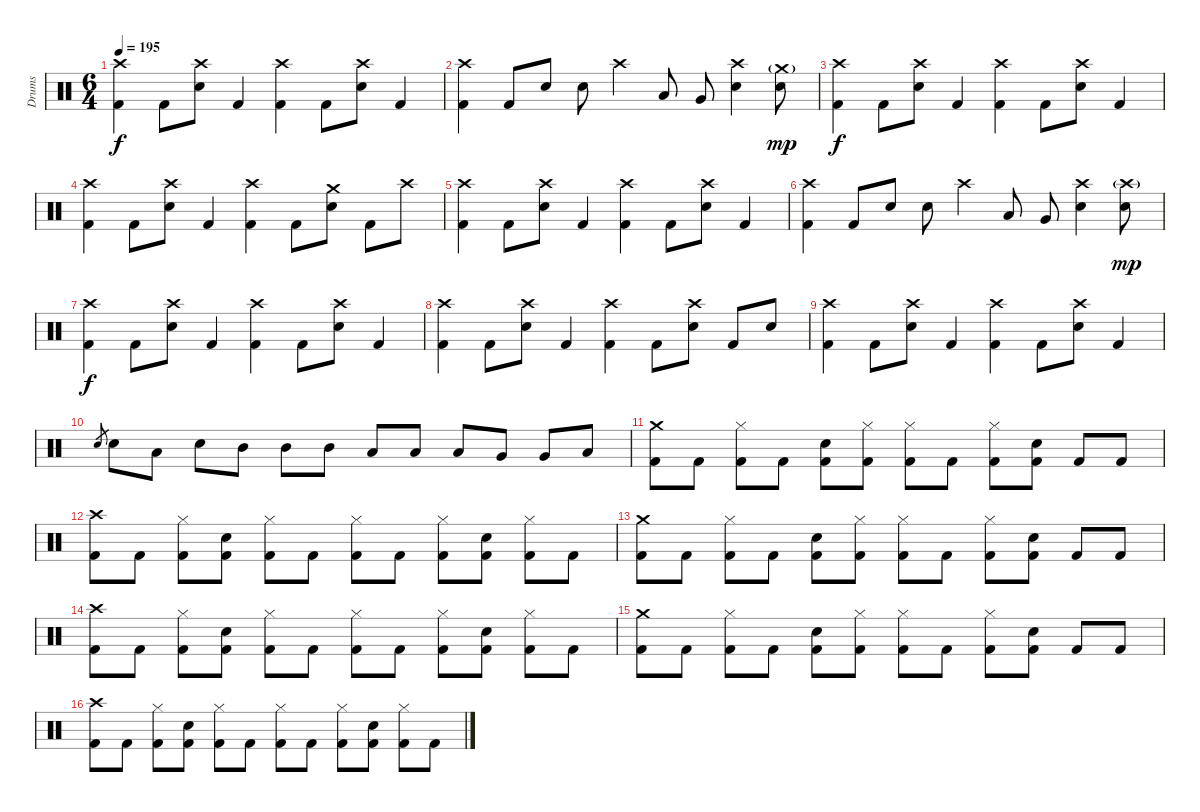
\track ("Drums" "Drums") {instrument percussion}
\staff {score}
\articulation defaults
\ts (6 4)
\tempo 195
\clef neutral
\ks c
("Crash high (hit)" "Kick (hit) 2").4{dy f} "Kick (hit) 2".8 ("Crash high (hit)" "Electric Snare (hit)").8 "Kick (hit) 2".4 ("Crash high (hit)" "Kick (hit) 2").4 "Kick (hit) 2".8 ("Crash high (hit)" "Electric Snare (hit)").8 "Kick (hit) 2".4 |
("Crash high (hit)" "Kick (hit) 2").4 "Kick (hit) 2".8 "Electric Snare (hit)".8 "Electric Snare (hit)".8 "Crash high (hit)".4 "Low Tom (hit)".8 "Very Low Tom (hit)".8 ("Crash high (hit)" "Electric Snare (hit)").4 ("Crash medium (hit)"{g} "Electric Snare (hit)").8{dy mp} |
("Crash high (hit)" "Kick (hit) 2").4{dy f} "Kick (hit) 2".8 ("Crash high (hit)" "Electric Snare (hit)").8 "Kick (hit) 2".4 ("Crash high (hit)" "Kick (hit) 2").4 "Kick (hit) 2".8 ("Crash high (hit)" "Electric Snare (hit)").8 "Kick (hit) 2".4 |
("Crash high (hit)" "Kick (hit) 2").4 "Kick (hit) 2".8 ("Crash high (hit)" "Electric Snare (hit)").8 "Kick (hit) 2".4 ("Crash high (hit)" "Kick (hit) 2").4 "Kick (hit) 2".8 ("Crash medium (hit)" "Electric Snare (hit)").8 "Kick (hit) 2".8 "Crash high (hit)".8 |
("Crash high (hit)" "Kick (hit) 2").4 "Kick (hit) 2".8 ("Crash high (hit)" "Electric Snare (hit)").8 "Kick (hit) 2".4 ("Crash high (hit)" "Kick (hit) 2").4 "Kick (hit) 2".8 ("Crash high (hit)" "Electric Snare (hit)").8 "Kick (hit) 2".4 |
("Crash high (hit)" "Kick (hit) 2").4 "Kick (hit) 2".8 "Electric Snare (hit)".8 "Electric Snare (hit)".8 "Crash high (hit)".4 "Low Tom (hit)".8 "Very Low Tom (hit)".8 ("Crash high (hit)" "Electric Snare (hit)").4 ("Crash high (hit)"{g} "Electric Snare (hit)").8{dy mp} |
("Crash high (hit)" "Kick (hit) 2").4{dy f} "Kick (hit) 2".8 ("Crash high (hit)" "Electric Snare (hit)").8 "Kick (hit) 2".4 ("Crash high (hit)" "Kick (hit) 2").4 "Kick (hit) 2".8 ("Crash high (hit)" "Electric Snare (hit)").8 "Kick (hit) 2".4 |
("Crash high (hit)" "Kick (hit) 2").4 "Kick (hit) 2".8 ("Crash high (hit)" "Electric Snare (hit)").8 "Kick (hit) 2".4 ("Crash high (hit)" "Kick (hit) 2").4 "Kick (hit) 2".8 ("Crash high (hit)" "Electric Snare (hit)").8 "Kick (hit) 2".8 "Electric Snare (hit)".8 |
("Crash high (hit)" "Kick (hit) 2").4 "Kick (hit) 2".8 ("Crash high (hit)" "Electric Snare (hit)").8 "Kick (hit) 2".4 ("Crash high (hit)" "Kick (hit) 2").4 "Kick (hit) 2".8 ("Crash high (hit)" "Electric Snare (hit)").8 "Kick (hit) 2".4 |
"Electric Snare (hit)".8{gr} "Electric Snare (hit)".8 "Low Tom (hit)".8 "Electric Snare (hit)".8 "Mid Tom (hit)".8 "Mid Tom (hit)".8 "Mid Tom (hit)".8 "Low Tom (hit)".8 "Low Tom (hit)".8 "Low Tom (hit)".8 "Very Low Tom (hit)".8 "Very Low Tom (hit)".8 "Low Floor Tom (hit)".8 |
("Crash medium (hit)" "Kick (hit) 2").8 "Kick (hit) 2".8 ("Hi-Hat (closed)" "Kick (hit) 2").8 "Kick (hit) 2".8 ("Electric Snare (hit)" "Kick (hit) 2").8 ("Hi-Hat (closed)" "Kick (hit) 2").8 ("Hi-Hat (closed)" "Kick (hit) 2").8 "Kick (hit) 2".8 ("Hi-Hat (closed)" "Kick (hit) 2").8 ("Electric Snare (hit)" "Kick (hit) 2").8 "Kick (hit) 2".8 "Kick (hit) 2".8 |
("Crash high (hit)" "Kick (hit) 2").8 "Kick (hit) 2".8 ("Hi-Hat (closed)" "Kick (hit) 2").8 ("Electric Snare (hit)" "Kick (hit) 2").8 ("Hi-Hat (closed)" "Kick (hit) 2").8 "Kick (hit) 2".8 ("Hi-Hat (closed)" "Kick (hit) 2").8 "Kick (hit) 2".8 ("Hi-Hat (closed)" "Kick (hit) 2").8 ("Electric Snare (hit)" "Kick (hit) 2").8 ("Hi-Hat (closed)" "Kick (hit) 2").8 "Kick (hit) 2".8 |
("Crash medium (hit)" "Kick (hit) 2").8 "Kick (hit) 2".8 ("Hi-Hat (closed)" "Kick (hit) 2").8 "Kick (hit) 2".8 ("Electric Snare (hit)" "Kick (hit) 2").8 ("Hi-Hat (closed)" "Kick (hit) 2").8 ("Hi-Hat (closed)" "Kick (hit) 2").8 "Kick (hit) 2".8 ("Hi-Hat (closed)" "Kick (hit) 2").8 ("Electric Snare (hit)" "Kick (hit) 2").8 "Kick (hit) 2".8 "Kick (hit) 2".8 |
("Crash high (hit)" "Kick (hit) 2").8 "Kick (hit) 2".8 ("Hi-Hat (closed)" "Kick (hit) 2").8 ("Electric Snare (hit)" "Kick (hit) 2").8 ("Hi-Hat (closed)" "Kick (hit) 2").8 "Kick (hit) 2".8 ("Hi-Hat (closed)" "Kick (hit) 2").8 "Kick (hit) 2".8 ("Hi-Hat (closed)" "Kick (hit) 2").8 ("Electric Snare (hit)" "Kick (hit) 2").8 ("Hi-Hat (closed)" "Kick (hit) 2").8 "Kick (hit) 2".8 |
("Crash medium (hit)" "Kick (hit) 2").8 "Kick (hit) 2".8 ("Hi-Hat (closed)" "Kick (hit) 2").8 "Kick (hit) 2".8 ("Electric Snare (hit)" "Kick (hit) 2").8 ("Hi-Hat (closed)" "Kick (hit) 2").8 ("Hi-Hat (closed)" "Kick (hit) 2").8 "Kick (hit) 2".8 ("Hi-Hat (closed)" "Kick (hit) 2").8 ("Electric Snare (hit)" "Kick (hit) 2").8 "Kick (hit) 2".8 "Kick (hit) 2".8 |
("Crash high (hit)" "Kick (hit) 2").8 "Kick (hit) 2".8 ("Hi-Hat (closed)" "Kick (hit) 2").8 ("Electric Snare (hit)" "Kick (hit) 2").8 ("Hi-Hat (closed)" "Kick (hit) 2").8 "Kick (hit) 2".8 ("Hi-Hat (closed)" "Kick (hit) 2").8 "Kick (hit) 2".8 ("Hi-Hat (closed)" "Kick (hit) 2").8 ("Electric Snare (hit)" "Kick (hit) 2").8 ("Hi-Hat (closed)" "Kick (hit) 2").8 "Kick (hit) 2".8
